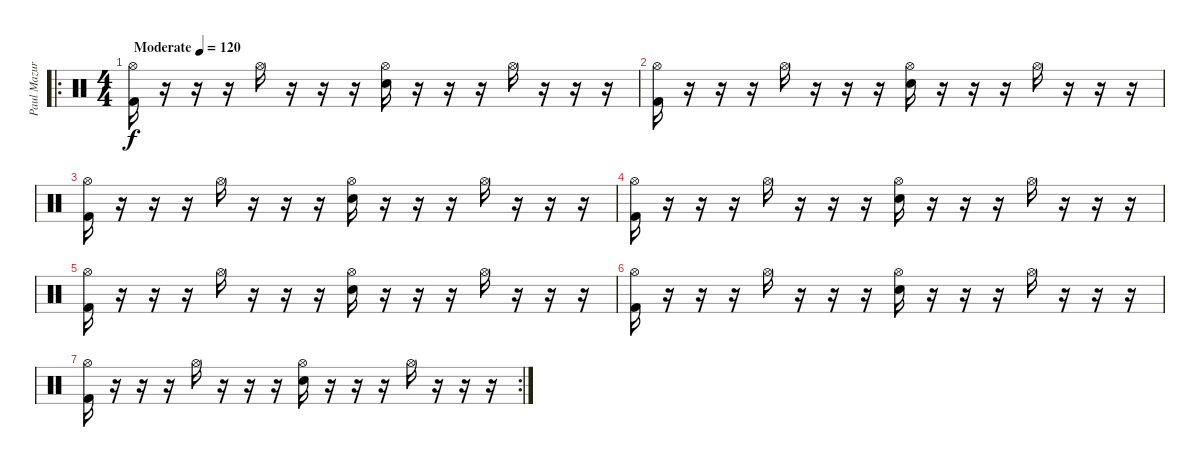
\track ("Paul Mazurkiewicz" "Paul Mazur") {instrument percussion}
\staff {score}
\articulation defaults
\ro
\ts (4 4)
\tempo (120 "Moderate")
\tempo 175
\tempo (120 "Moderate")
\clef neutral
\ks c
("Hi-Hat (open)" "Kick (hit) 2").16{dy f} r.16 r.16 r.16 "Hi-Hat (open)".16 r.16 r.16 r.16 ("Hi-Hat (open)" "Snare (hit) 2").16 r.16 r.16 r.16 "Hi-Hat (open)".16 r.16 r.16 r.16 |
("Hi-Hat (open)" "Kick (hit) 2").16 r.16 r.16 r.16 "Hi-Hat (open)".16 r.16 r.16 r.16 ("Hi-Hat (open)" "Snare (hit) 2").16 r.16 r.16 r.16 "Hi-Hat (open)".16 r.16 r.16 r.16 |
("Hi-Hat (open)" "Kick (hit) 2").16 r.16 r.16 r.16 "Hi-Hat (open)".16 r.16 r.16 r.16 ("Hi-Hat (open)" "Snare (hit) 2").16 r.16 r.16 r.16 "Hi-Hat (open)".16 r.16 r.16 r.16 |
("Hi-Hat (open)" "Kick (hit) 2").16 r.16 r.16 r.16 "Hi-Hat (open)".16 r.16 r.16 r.16 ("Hi-Hat (open)" "Snare (hit) 2").16 r.16 r.16 r.16 "Hi-Hat (open)".16 r.16 r.16 r.16 |
("Hi-Hat (open)" "Kick (hit) 2").16 r.16 r.16 r.16 "Hi-Hat (open)".16 r.16 r.16 r.16 ("Hi-Hat (open)" "Snare (hit) 2").16 r.16 r.16 r.16 "Hi-Hat (open)".16 r.16 r.16 r.16 |
("Hi-Hat (open)" "Kick (hit) 2").16 r.16 r.16 r.16 "Hi-Hat (open)".16 r.16 r.16 r.16 ("Hi-Hat (open)" "Snare (hit) 2").16 r.16 r.16 r.16 "Hi-Hat (open)".16 r.16 r.16 r.16 |
\rc 2
("Hi-Hat (open)" "Kick (hit) 2").16 r.16 r.16 r.16 "Hi-Hat (open)".16 r.16 r.16 r.16 ("Hi-Hat (open)" "Snare (hit) 2").16 r.16 r.16 r.16 "Hi-Hat (open)".16 r.16 r.16 r.16
